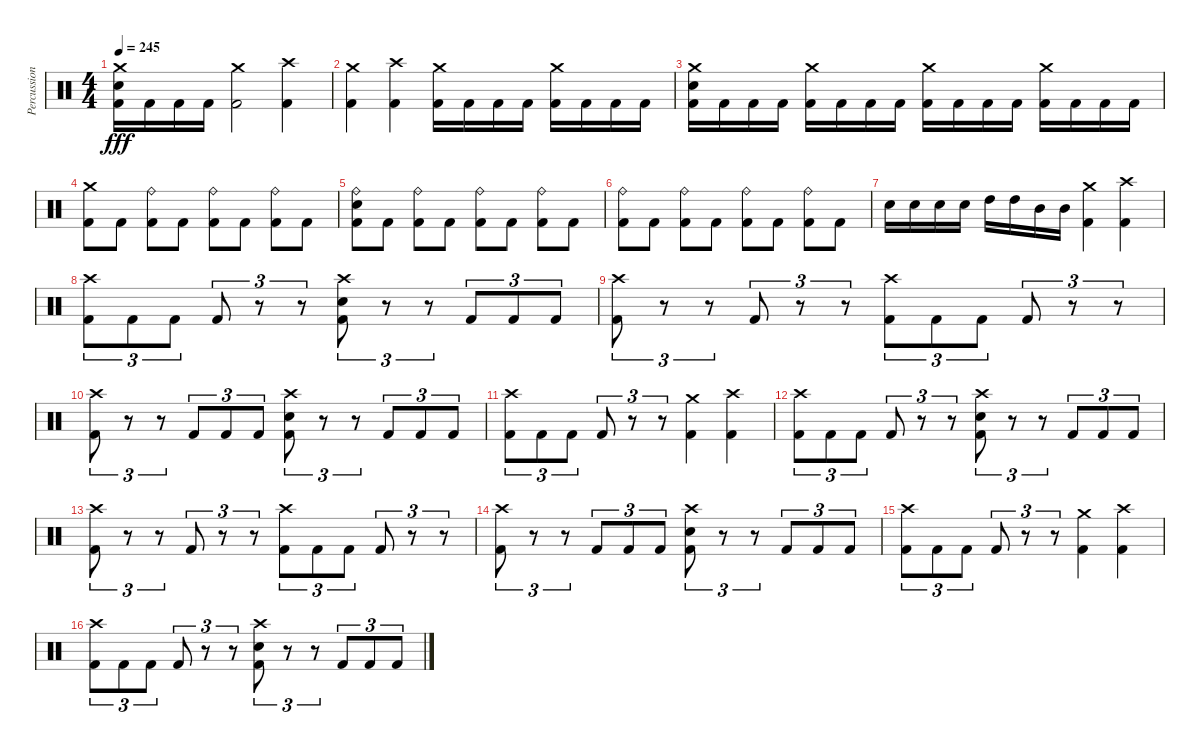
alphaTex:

\track ("Percussion" "Percussion") {instrument percussion bank 177}
\staff {score}
\articulation defaults
\ts (4 4)
\tempo 245
\clef neutral
\ks c
("Crash medium (hit)" "Electric Snare (hit)" "Kick (hit) 2").16{dy fff} "Kick (hit) 2".16 "Kick (hit) 2".16 "Kick (hit) 2".16 ("Crash medium (hit)" "Kick (hit) 2").2 ("Crash high (hit)" "Kick (hit) 2").4 |
("Crash medium (hit)" "Kick (hit) 2").4 ("Crash high (hit)" "Kick (hit) 2").4 ("Crash medium (hit)" "Kick (hit) 2").16 "Kick (hit) 2".16 "Kick (hit) 2".16 "Kick (hit) 2".16 ("Crash medium (hit)" "Kick (hit) 2").16 "Kick (hit) 2".16 "Kick (hit) 2".16 "Kick (hit) 2".16 |
("Crash medium (hit)" "Electric Snare (hit)" "Kick (hit) 2").16 "Kick (hit) 2".16 "Kick (hit) 2".16 "Kick (hit) 2".16 ("Crash medium (hit)" "Kick (hit) 2").16 "Kick (hit) 2".16 "Kick (hit) 2".16 "Kick (hit) 2".16 ("Crash medium (hit)" "Kick (hit) 2").16 "Kick (hit) 2".16 "Kick (hit) 2".16 "Kick (hit) 2".16 ("Crash medium (hit)" "Kick (hit) 2").16 "Kick (hit) 2".16 "Kick (hit) 2".16 "Kick (hit) 2".16 |
("Crash medium (hit)" "Kick (hit) 2").8 "Kick (hit) 2".8 ("Ride (bell)" "Kick (hit) 2").8 "Kick (hit) 2".8 ("Ride (bell)" "Kick (hit) 2").8 "Kick (hit) 2".8 ("Ride (bell)" "Kick (hit) 2").8 "Kick (hit) 2".8 |
("Ride (bell)" "Electric Snare (hit)" "Kick (hit) 2").8 "Kick (hit) 2".8 ("Ride (bell)" "Kick (hit) 2").8 "Kick (hit) 2".8 ("Ride (bell)" "Kick (hit) 2").8 "Kick (hit) 2".8 ("Ride (bell)" "Kick (hit) 2").8 "Kick (hit) 2".8 |
("Ride (bell)" "Kick (hit) 2").8 "Kick (hit) 2".8 ("Ride (bell)" "Kick (hit) 2").8 "Kick (hit) 2".8 ("Ride (bell)" "Kick (hit) 2").8 "Kick (hit) 2".8 ("Ride (bell)" "Kick (hit) 2").8 "Kick (hit) 2".8 |
"Electric Snare (hit)".16 "Electric Snare (hit)".16 "Electric Snare (hit)".16 "Electric Snare (hit)".16 "High Tom (hit)".16 "High Tom (hit)".16 "Mid Tom (hit)".16 "Mid Tom (hit)".16 ("Crash medium (hit)" "Kick (hit) 2").4 ("Crash high (hit)" "Kick (hit) 2").4 |
("Crash high (hit)" "Kick (hit) 2").8{tu (3 2)} "Kick (hit) 2".8{tu (3 2)} "Kick (hit) 2".8{tu (3 2)} "Kick (hit) 2".8{tu (3 2)} r.8{tu (3 2)} r.8{tu (3 2)} ("Crash high (hit)" "Electric Snare (hit)" "Kick (hit) 2").8{tu (3 2)} r.8{tu (3 2)} r.8{tu (3 2)} "Kick (hit) 2".8{tu (3 2)} "Kick (hit) 2".8{tu (3 2)} "Kick (hit) 2".8{tu (3 2)} |
("Crash high (hit)" "Kick (hit) 2").8{tu (3 2)} r.8{tu (3 2)} r.8{tu (3 2)} "Kick (hit) 2".8{tu (3 2)} r.8{tu (3 2)} r.8{tu (3 2)} ("Crash high (hit)" "Kick (hit) 2").8{tu (3 2)} "Kick (hit) 2".8{tu (3 2)} "Kick (hit) 2".8{tu (3 2)} "Kick (hit) 2".8{tu (3 2)} r.8{tu (3 2)} r.8{tu (3 2)} |
("Crash high (hit)" "Kick (hit) 2").8{tu (3 2)} r.8{tu (3 2)} r.8{tu (3 2)} "Kick (hit) 2".8{tu (3 2)} "Kick (hit) 2".8{tu (3 2)} "Kick (hit) 2".8{tu (3 2)} ("Crash high (hit)" "Electric Snare (hit)" "Kick (hit) 2").8{tu (3 2)} r.8{tu (3 2)} r.8{tu (3 2)} "Kick (hit) 2".8{tu (3 2)} "Kick (hit) 2".8{tu (3 2)} "Kick (hit) 2".8{tu (3 2)} |
("Crash high (hit)" "Kick (hit) 2").8{tu (3 2)} "Kick (hit) 2".8{tu (3 2)} "Kick (hit) 2".8{tu (3 2)} "Kick (hit) 2".8{tu (3 2)} r.8{tu (3 2)} r.8{tu (3 2)} ("Crash medium (hit)" "Kick (hit) 2").4 ("Crash high (hit)" "Kick (hit) 2").4 |
("Crash high (hit)" "Kick (hit) 2").8{tu (3 2)} "Kick (hit) 2".8{tu (3 2)} "Kick (hit) 2".8{tu (3 2)} "Kick (hit) 2".8{tu (3 2)} r.8{tu (3 2)} r.8{tu (3 2)} ("Crash high (hit)" "Electric Snare (hit)" "Kick (hit) 2").8{tu (3 2)} r.8{tu (3 2)} r.8{tu (3 2)} "Kick (hit) 2".8{tu (3 2)} "Kick (hit) 2".8{tu (3 2)} "Kick (hit) 2".8{tu (3 2)} |
("Crash high (hit)" "Kick (hit) 2").8{tu (3 2)} r.8{tu (3 2)} r.8{tu (3 2)} "Kick (hit) 2".8{tu (3 2)} r.8{tu (3 2)} r.8{tu (3 2)} ("Crash high (hit)" "Kick (hit) 2").8{tu (3 2)} "Kick (hit) 2".8{tu (3 2)} "Kick (hit) 2".8{tu (3 2)} "Kick (hit) 2".8{tu (3 2)} r.8{tu (3 2)} r.8{tu (3 2)} |
("Crash high (hit)" "Kick (hit) 2").8{tu (3 2)} r.8{tu (3 2)} r.8{tu (3 2)} "Kick (hit) 2".8{tu (3 2)} "Kick (hit) 2".8{tu (3 2)} "Kick (hit) 2".8{tu (3 2)} ("Crash high (hit)" "Electric Snare (hit)" "Kick (hit) 2").8{tu (3 2)} r.8{tu (3 2)} r.8{tu (3 2)} "Kick (hit) 2".8{tu (3 2)} "Kick (hit) 2".8{tu (3 2)} "Kick (hit) 2".8{tu (3 2)} |
("Crash high (hit)" "Kick (hit) 2").8{tu (3 2)} "Kick (hit) 2".8{tu (3 2)} "Kick (hit) 2".8{tu (3 2)} "Kick (hit) 2".8{tu (3 2)} r.8{tu (3 2)} r.8{tu (3 2)} ("Crash medium (hit)" "Kick (hit) 2").4 ("Crash high (hit)" "Kick (hit) 2").4 |
("Crash high (hit)" "Kick (hit) 2").8{tu (3 2)} "Kick (hit) 2".8{tu (3 2)} "Kick (hit) 2".8{tu (3 2)} "Kick (hit) 2".8{tu (3 2)} r.8{tu (3 2)} r.8{tu (3 2)} ("Crash high (hit)" "Electric Snare (hit)" "Kick (hit) 2").8{tu (3 2)} r.8{tu (3 2)} r.8{tu (3 2)} "Kick (hit) 2".8{tu (3 2)} "Kick (hit) 2".8{tu (3 2)} "Kick (hit) 2".8{tu (3 2)}
